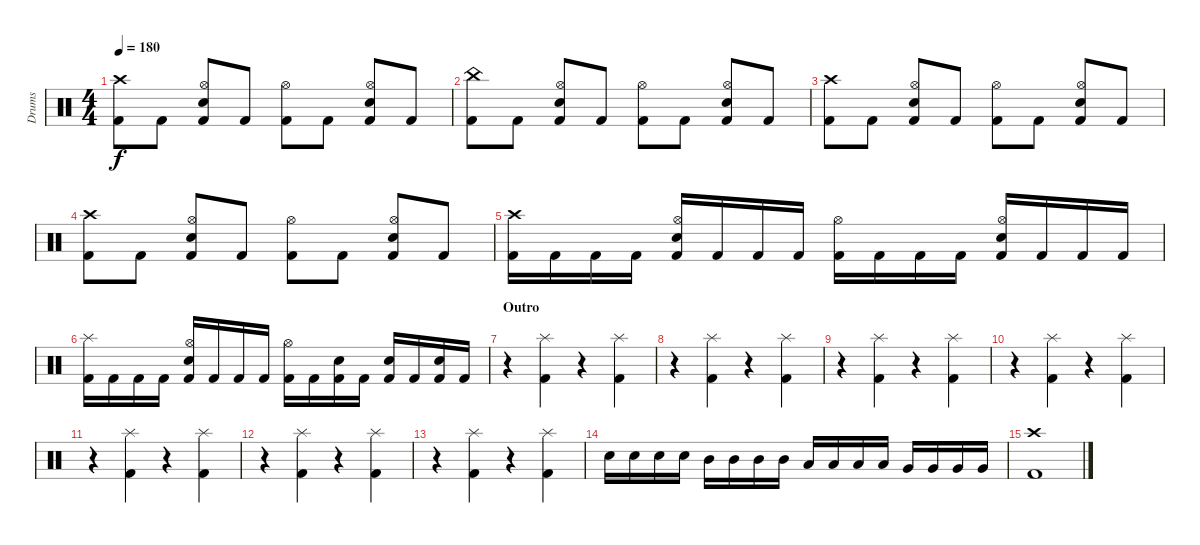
\track ("Drums" "Drums") {instrument percussion}
\staff {score}
\articulation defaults
\ts (4 4)
\tempo 180
\clef neutral
\ks c
("Crash high (hit)" "Kick (hit) 2").8{dy f} "Kick (hit) 2".8 ("Hi-Hat (open)" "Electric Snare (hit)" "Kick (hit) 2").8 "Kick (hit) 2".8 ("Hi-Hat (open)" "Kick (hit) 2").8 "Kick (hit) 2".8 ("Hi-Hat (open)" "Electric Snare (hit)" "Kick (hit) 2").8 "Kick (hit) 2".8 |
("China (hit)" "Kick (hit) 2").8 "Kick (hit) 2".8 ("Hi-Hat (open)" "Electric Snare (hit)" "Kick (hit) 2").8 "Kick (hit) 2".8 ("Hi-Hat (open)" "Kick (hit) 2").8 "Kick (hit) 2".8 ("Hi-Hat (open)" "Electric Snare (hit)" "Kick (hit) 2").8 "Kick (hit) 2".8 |
("Crash high (hit)" "Kick (hit) 2").8 "Kick (hit) 2".8 ("Hi-Hat (open)" "Electric Snare (hit)" "Kick (hit) 2").8 "Kick (hit) 2".8 ("Hi-Hat (open)" "Kick (hit) 2").8 "Kick (hit) 2".8 ("Hi-Hat (open)" "Electric Snare (hit)" "Kick (hit) 2").8 "Kick (hit) 2".8 |
("Crash high (hit)" "Kick (hit) 2").8 "Kick (hit) 2".8 ("Hi-Hat (open)" "Electric Snare (hit)" "Kick (hit) 2").8 "Kick (hit) 2".8 ("Hi-Hat (open)" "Kick (hit) 2").8 "Kick (hit) 2".8 ("Hi-Hat (open)" "Electric Snare (hit)" "Kick (hit) 2").8 "Kick (hit) 2".8 |
("Crash high (hit)" "Kick (hit) 2").16 "Kick (hit) 2".16 "Kick (hit) 2".16 "Kick (hit) 2".16 ("Hi-Hat (open)" "Electric Snare (hit)" "Kick (hit) 2").16 "Kick (hit) 2".16 "Kick (hit) 2".16 "Kick (hit) 2".16 ("Hi-Hat (open)" "Kick (hit) 2").16 "Kick (hit) 2".16 "Kick (hit) 2".16 "Kick (hit) 2".16 ("Hi-Hat (open)" "Electric Snare (hit)" "Kick (hit) 2").16 "Kick (hit) 2".16 "Kick (hit) 2".16 "Kick (hit) 2".16 |
("Splash (hit)" "Kick (hit) 2").16 "Kick (hit) 2".16 "Kick (hit) 2".16 "Kick (hit) 2".16 ("Hi-Hat (open)" "Electric Snare (hit)" "Kick (hit) 2").16 "Kick (hit) 2".16 "Kick (hit) 2".16 "Kick (hit) 2".16 ("Hi-Hat (open)" "Kick (hit) 2").16 "Kick (hit) 2".16 ("Electric Snare (hit)" "Kick (hit) 2").16 "Kick (hit) 2".16 ("Electric Snare (hit)" "Kick (hit) 2").16 "Kick (hit) 2".16 ("Electric Snare (hit)" "Kick (hit) 2").16 "Kick (hit) 2".16 |
\section ("" "Outro")
r.4 ("Splash (hit)" "Kick (hit) 2").4 r.4 ("Splash (hit)" "Kick (hit) 2").4 |
r.4 ("Splash (hit)" "Kick (hit) 2").4 r.4 ("Splash (hit)" "Kick (hit) 2").4 |
r.4 ("Splash (hit)" "Kick (hit) 2").4 r.4 ("Splash (hit)" "Kick (hit) 2").4 |
r.4 ("Splash (hit)" "Kick (hit) 2").4 r.4 ("Splash (hit)" "Kick (hit) 2").4 |
r.4 ("Splash (hit)" "Kick (hit) 2").4 r.4 ("Splash (hit)" "Kick (hit) 2").4 |
r.4 ("Splash (hit)" "Kick (hit) 2").4 r.4 ("Splash (hit)" "Kick (hit) 2").4 |
r.4 ("Splash (hit)" "Kick (hit) 2").4 r.4 ("Splash (hit)" "Kick (hit) 2").4 |
"Snare (hit) 2".16 "Snare (hit) 2".16 "Snare (hit) 2".16 "Electric Snare (hit)".16 "Mid Tom (hit)".16 "Mid Tom (hit)".16 "Mid Tom (hit)".16 "Mid Tom (hit)".16 "Low Tom (hit)".16 "Low Tom (hit)".16 "Low Tom (hit)".16 "Low Tom (hit)".16 "Very Low Tom (hit)".16 "Very Low Tom (hit)".16 "Very Low Tom (hit)".16 "Very Low Tom (hit)".16 |
("Crash high (hit)" "Kick (hit) 2").1
